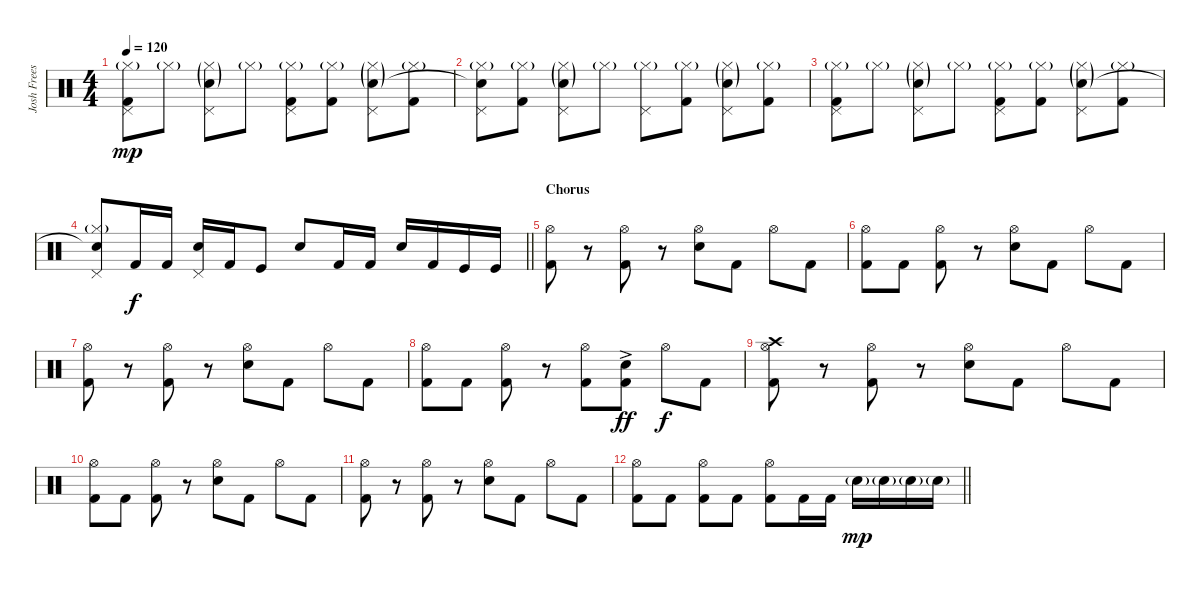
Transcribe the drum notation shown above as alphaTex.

\track ("Josh Freese" "Josh Frees") {instrument percussion}
\staff {score}
\articulation defaults
\ts (4 4)
\tempo 120
\clef neutral
\ks c
("Pedal Hi-Hat (hit)" "Hi-Hat (closed)"{g} "Kick (hit) 2").8{dy mp} "Hi-Hat (closed)"{g}.8 ("Pedal Hi-Hat (hit)" "Hi-Hat (closed)"{g} "Snare (hit) 2"{g}).8 "Hi-Hat (closed)"{g}.8 ("Pedal Hi-Hat (hit)" "Hi-Hat (closed)"{g} "Kick (hit) 2").8 ("Hi-Hat (closed)"{g} "Kick (hit) 2").8 ("Pedal Hi-Hat (hit)" "Hi-Hat (closed)"{g} "Snare (hit) 2"{g}).8 ("Hi-Hat (closed)"{g} "Kick (hit) 2").8 |
("Pedal Hi-Hat (hit)" "Hi-Hat (closed)"{g} "Snare (hit)"{t}).8 ("Hi-Hat (closed)"{g} "Kick (hit) 2").8 ("Pedal Hi-Hat (hit)" "Hi-Hat (closed)"{g} "Snare (hit) 2"{g}).8 "Hi-Hat (closed)"{g}.8 ("Pedal Hi-Hat (hit)" "Hi-Hat (closed)"{g}).8 ("Hi-Hat (closed)"{g} "Kick (hit) 2").8 ("Pedal Hi-Hat (hit)" "Hi-Hat (closed)"{g} "Snare (hit) 2"{g}).8 ("Hi-Hat (closed)"{g} "Kick (hit) 2").8 |
("Pedal Hi-Hat (hit)" "Hi-Hat (closed)"{g} "Kick (hit) 2").8 "Hi-Hat (closed)"{g}.8 ("Pedal Hi-Hat (hit)" "Hi-Hat (closed)"{g} "Snare (hit) 2"{g}).8 "Hi-Hat (closed)"{g}.8 ("Pedal Hi-Hat (hit)" "Hi-Hat (closed)"{g} "Kick (hit) 2").8 ("Hi-Hat (closed)"{g} "Kick (hit) 2").8 ("Pedal Hi-Hat (hit)" "Hi-Hat (closed)"{g} "Snare (hit) 2"{g}).8 ("Hi-Hat (closed)"{g} "Kick (hit) 2").8 |
\barLineRight lightlight
("Pedal Hi-Hat (hit)" "Hi-Hat (closed)"{g} "Snare (hit)"{t}).8 "Kick (hit) 2".16{dy f} "Kick (hit) 2".16 ("Pedal Hi-Hat (hit)" "Electric Snare (hit)").16 "Kick (hit) 2".16 "Kick (hit)".8 "Electric Snare (hit)".8 "Kick (hit) 2".16 "Kick (hit) 2".16 "Electric Snare (hit)".16 "Kick (hit) 2".16 "Kick (hit)".16 "Kick (hit)".16 |
\section ("" "Chorus")
("Hi-Hat (open)" "Kick (hit) 2").8 r.8 ("Hi-Hat (open)" "Kick (hit) 2").8 r.8 ("Hi-Hat (open)" "Snare (hit) 2").8 "Kick (hit) 2".8 "Hi-Hat (open)".8 "Kick (hit) 2".8 |
("Hi-Hat (open)" "Kick (hit) 2").8 "Kick (hit) 2".8 ("Hi-Hat (open)" "Kick (hit) 2").8 r.8 ("Hi-Hat (open)" "Snare (hit) 2").8 "Kick (hit) 2".8 "Hi-Hat (open)".8 "Kick (hit) 2".8 |
("Hi-Hat (open)" "Kick (hit) 2").8 r.8 ("Hi-Hat (open)" "Kick (hit) 2").8 r.8 ("Hi-Hat (open)" "Snare (hit) 2").8 "Kick (hit) 2".8 "Hi-Hat (open)".8 "Kick (hit) 2".8 |
("Hi-Hat (open)" "Kick (hit) 2").8 "Kick (hit) 2".8 ("Hi-Hat (open)" "Kick (hit) 2").8 r.8 ("Hi-Hat (open)" "Kick (hit) 2").8 ("Snare (hit) 2"{ac} "Kick (hit) 2").8{dy ff} "Hi-Hat (open)".8{dy f} "Kick (hit) 2".8 |
("Crash high (hit)" "Hi-Hat (open)" "Kick (hit) 2").8 r.8 ("Hi-Hat (open)" "Kick (hit) 2").8 r.8 ("Hi-Hat (open)" "Snare (hit) 2").8 "Kick (hit) 2".8 "Hi-Hat (open)".8 "Kick (hit) 2".8 |
("Hi-Hat (open)" "Kick (hit) 2").8 "Kick (hit) 2".8 ("Hi-Hat (open)" "Kick (hit) 2").8 r.8 ("Hi-Hat (open)" "Snare (hit) 2").8 "Kick (hit) 2".8 "Hi-Hat (open)".8 "Kick (hit) 2".8 |
("Hi-Hat (open)" "Kick (hit) 2").8 r.8 ("Hi-Hat (open)" "Kick (hit) 2").8 r.8 ("Hi-Hat (open)" "Snare (hit) 2").8 "Kick (hit) 2".8 "Hi-Hat (open)".8 "Kick (hit) 2".8 |
\barLineRight lightlight
("Hi-Hat (open)" "Kick (hit) 2").8 "Kick (hit) 2".8 ("Hi-Hat (open)" "Kick (hit) 2").8 "Kick (hit) 2".8 ("Hi-Hat (open)" "Kick (hit) 2").8 "Kick (hit) 2".16 "Kick (hit) 2".16 "Snare (hit) 2"{g}.16{dy mp} "Snare (hit) 2"{g}.16 "Electric Snare (hit)"{g}.16 "Electric Snare (hit)"{g}.16
